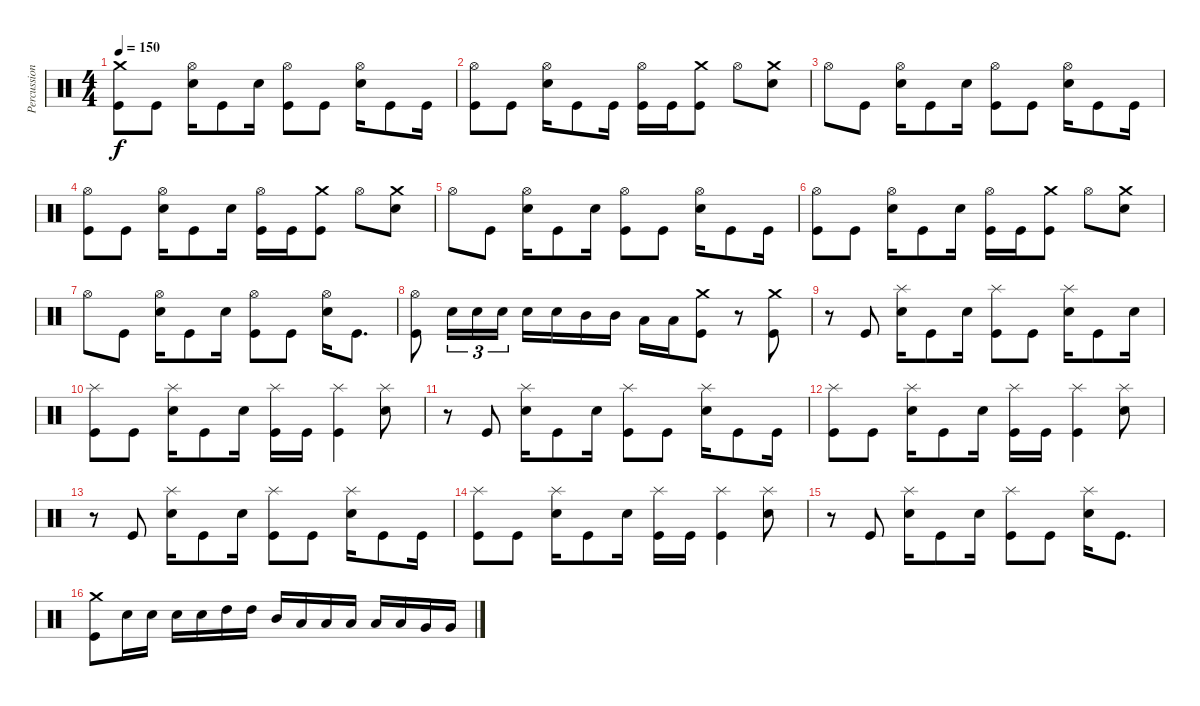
\track ("Percussions" "Percussion") {instrument percussion}
\staff {score}
\articulation defaults
\ts (4 4)
\tempo 150
\clef neutral
\ks c
("Kick (hit)" "Crash medium (hit)").8{dy f} "Kick (hit)".8 ("Electric Snare (hit)" "Hi-Hat (open)").16 "Kick (hit)".8 "Electric Snare (hit)".16 ("Kick (hit)" "Hi-Hat (open)").8 "Kick (hit)".8 ("Electric Snare (hit)" "Hi-Hat (open)").16 "Kick (hit)".8 "Kick (hit)".16 |
("Kick (hit)" "Hi-Hat (open)").8 "Kick (hit)".8 ("Electric Snare (hit)" "Hi-Hat (open)").16 "Kick (hit)".8 "Kick (hit)".16 ("Kick (hit)" "Hi-Hat (open)").16 "Kick (hit)".16 ("Kick (hit)" "Crash medium (hit)").8 "Hi-Hat (open)".8 ("Electric Snare (hit)" "Crash medium (hit)").8 |
"Hi-Hat (open)".8 "Kick (hit)".8 ("Electric Snare (hit)" "Hi-Hat (open)").16 "Kick (hit)".8 "Electric Snare (hit)".16 ("Kick (hit)" "Hi-Hat (open)").8 "Kick (hit)".8 ("Electric Snare (hit)" "Hi-Hat (open)").16 "Kick (hit)".8 "Kick (hit)".16 |
("Kick (hit)" "Hi-Hat (open)").8 "Kick (hit)".8 ("Electric Snare (hit)" "Hi-Hat (open)").16 "Kick (hit)".8 "Electric Snare (hit)".16 ("Kick (hit)" "Hi-Hat (open)").16 "Kick (hit)".16 ("Kick (hit)" "Crash medium (hit)").8 "Hi-Hat (open)".8 ("Electric Snare (hit)" "Crash medium (hit)").8 |
"Hi-Hat (open)".8 "Kick (hit)".8 ("Electric Snare (hit)" "Hi-Hat (open)").16 "Kick (hit)".8 "Electric Snare (hit)".16 ("Kick (hit)" "Hi-Hat (open)").8 "Kick (hit)".8 ("Electric Snare (hit)" "Hi-Hat (open)").16 "Kick (hit)".8 "Kick (hit)".16 |
("Kick (hit)" "Hi-Hat (open)").8 "Kick (hit)".8 ("Electric Snare (hit)" "Hi-Hat (open)").16 "Kick (hit)".8 "Electric Snare (hit)".16 ("Kick (hit)" "Hi-Hat (open)").16 "Kick (hit)".16 ("Kick (hit)" "Crash medium (hit)").8 "Hi-Hat (open)".8 ("Electric Snare (hit)" "Crash medium (hit)").8 |
"Hi-Hat (open)".8 "Kick (hit)".8 ("Electric Snare (hit)" "Hi-Hat (open)").16 "Kick (hit)".8 "Electric Snare (hit)".16 ("Kick (hit)" "Hi-Hat (open)").8 "Kick (hit)".8 ("Electric Snare (hit)" "Hi-Hat (open)").16 "Kick (hit)".8{d} |
("Kick (hit)" "Hi-Hat (open)").8 "Electric Snare (hit)".16{tu (3 2)} "Electric Snare (hit)".16{tu (3 2)} "Electric Snare (hit)".16{tu (3 2)} "Electric Snare (hit)".16 "Electric Snare (hit)".16 "Mid Tom (hit)".16 "Mid Tom (hit)".16 "Low Tom (hit)".16 "Low Tom (hit)".16 ("Kick (hit)" "Crash medium (hit)").8 r.8 ("Kick (hit)" "Crash medium (hit)").8 |
r.8 "Kick (hit)".8 ("Electric Snare (hit)" "Splash (hit)").16 "Kick (hit)".8 "Electric Snare (hit)".16 ("Kick (hit)" "Splash (hit)").8 "Kick (hit)".8 ("Electric Snare (hit)" "Splash (hit)").16 "Kick (hit)".8 "Electric Snare (hit)".16 |
("Kick (hit)" "Splash (hit)").8 "Kick (hit)".8 ("Electric Snare (hit)" "Splash (hit)").16 "Kick (hit)".8 "Electric Snare (hit)".16 ("Kick (hit)" "Splash (hit)").16 "Kick (hit)".16 ("Kick (hit)" "Splash (hit)").4 ("Electric Snare (hit)" "Splash (hit)").8 |
r.8 "Kick (hit)".8 ("Electric Snare (hit)" "Splash (hit)").16 "Kick (hit)".8 "Electric Snare (hit)".16 ("Kick (hit)" "Splash (hit)").8 "Kick (hit)".8 ("Electric Snare (hit)" "Splash (hit)").16 "Kick (hit)".8 "Kick (hit)".16 |
("Kick (hit)" "Splash (hit)").8 "Kick (hit)".8 ("Electric Snare (hit)" "Splash (hit)").16 "Kick (hit)".8 "Electric Snare (hit)".16 ("Kick (hit)" "Splash (hit)").16 "Kick (hit)".16 ("Kick (hit)" "Splash (hit)").4 ("Electric Snare (hit)" "Splash (hit)").8 |
r.8 "Kick (hit)".8 ("Electric Snare (hit)" "Splash (hit)").16 "Kick (hit)".8 "Electric Snare (hit)".16 ("Kick (hit)" "Splash (hit)").8 "Kick (hit)".8 ("Electric Snare (hit)" "Splash (hit)").16 "Kick (hit)".8 "Kick (hit)".16 |
("Kick (hit)" "Splash (hit)").8 "Kick (hit)".8 ("Electric Snare (hit)" "Splash (hit)").16 "Kick (hit)".8 "Electric Snare (hit)".16 ("Kick (hit)" "Splash (hit)").16 "Kick (hit)".16 ("Kick (hit)" "Splash (hit)").4 ("Electric Snare (hit)" "Splash (hit)").8 |
r.8 "Kick (hit)".8 ("Electric Snare (hit)" "Splash (hit)").16 "Kick (hit)".8 "Electric Snare (hit)".16 ("Kick (hit)" "Splash (hit)").8 "Kick (hit)".8 ("Electric Snare (hit)" "Splash (hit)").16 "Kick (hit)".8{d} |
("Kick (hit)" "Crash medium (hit)").8 "Electric Snare (hit)".16 "Electric Snare (hit)".16 "Electric Snare (hit)".16 "Electric Snare (hit)".16 "High Tom (hit)".16 "High Tom (hit)".16 "Mid Tom (hit)".16 "Low Tom (hit)".16 "Low Tom (hit)".16 "Low Tom (hit)".16 "Low Tom (hit)".16 "Low Tom (hit)".16 "Very Low Tom (hit)".16 "Very Low Tom (hit)".16
